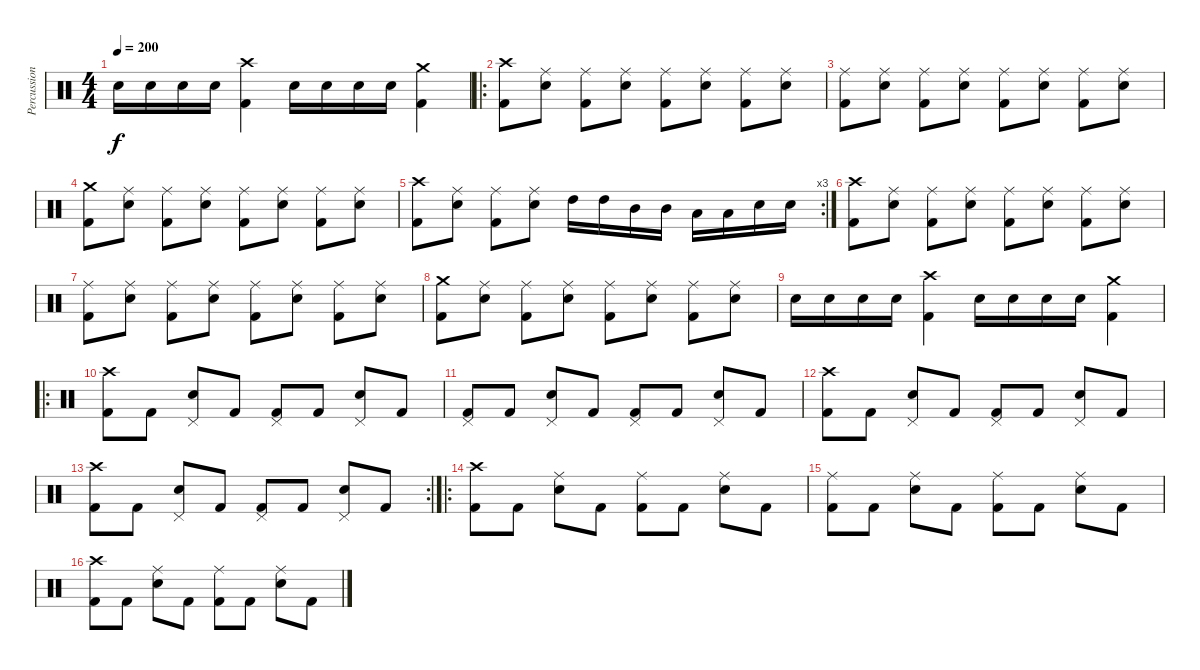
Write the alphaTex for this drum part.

\track ("Percussions" "Percussion") {instrument percussion}
\staff {score}
\articulation defaults
\ts (4 4)
\tempo 200
\clef neutral
\ks c "Snare (hit) 2".16{dy f} "Snare (hit) 2".16 "Snare (hit) 2".16 "Snare (hit) 2".16
("Crash high (hit)" "Kick (hit) 2").4 "Snare (hit) 2".16 "Snare (hit) 2".16 "Snare (hit) 2".16 "Snare (hit) 2".16 ("Crash medium (hit)" "Kick (hit) 2").4 |
\ro
("Crash high (hit)" "Kick (hit) 2").8 ("Ride (middle)" "Snare (hit) 2").8 ("Ride (middle)" "Kick (hit) 2").8 ("Ride (middle)" "Snare (hit) 2").8 ("Ride (middle)" "Kick (hit) 2").8 ("Ride (middle)" "Snare (hit) 2").8 ("Ride (middle)" "Kick (hit) 2").8 ("Ride (middle)" "Snare (hit) 2").8 |
("Ride (middle)" "Kick (hit) 2").8 ("Ride (middle)" "Snare (hit) 2").8 ("Ride (middle)" "Kick (hit) 2").8 ("Ride (middle)" "Snare (hit) 2").8 ("Ride (middle)" "Kick (hit) 2").8 ("Ride (middle)" "Snare (hit) 2").8 ("Ride (middle)" "Kick (hit) 2").8 ("Ride (middle)" "Snare (hit) 2").8 |
("Crash medium (hit)" "Kick (hit) 2").8 ("Ride (middle)" "Snare (hit) 2").8 ("Ride (middle)" "Kick (hit) 2").8 ("Ride (middle)" "Snare (hit) 2").8 ("Ride (middle)" "Kick (hit) 2").8 ("Ride (middle)" "Snare (hit) 2").8 ("Ride (middle)" "Kick (hit) 2").8 ("Ride (middle)" "Snare (hit) 2").8 |
\rc 3
("Crash high (hit)" "Kick (hit) 2").8 ("Ride (middle)" "Snare (hit) 2").8 ("Ride (middle)" "Kick (hit) 2").8 ("Ride (middle)" "Snare (hit) 2").8 "High Tom (hit)".16 "High Tom (hit)".16 "Mid Tom (hit)".16 "Mid Tom (hit)".16 "Low Tom (hit)".16 "Low Tom (hit)".16 "Snare (hit) 2".16 "Snare (hit) 2".16 |
("Crash high (hit)" "Kick (hit) 2").8 ("Ride (middle)" "Snare (hit) 2").8 ("Ride (middle)" "Kick (hit) 2").8 ("Ride (middle)" "Snare (hit) 2").8 ("Ride (middle)" "Kick (hit) 2").8 ("Ride (middle)" "Snare (hit) 2").8 ("Ride (middle)" "Kick (hit) 2").8 ("Ride (middle)" "Snare (hit) 2").8 |
("Ride (middle)" "Kick (hit) 2").8 ("Ride (middle)" "Snare (hit) 2").8 ("Ride (middle)" "Kick (hit) 2").8 ("Ride (middle)" "Snare (hit) 2").8 ("Ride (middle)" "Kick (hit) 2").8 ("Ride (middle)" "Snare (hit) 2").8 ("Ride (middle)" "Kick (hit) 2").8 ("Ride (middle)" "Snare (hit) 2").8 |
("Crash medium (hit)" "Kick (hit) 2").8 ("Ride (middle)" "Snare (hit) 2").8 ("Ride (middle)" "Kick (hit) 2").8 ("Ride (middle)" "Snare (hit) 2").8 ("Ride (middle)" "Kick (hit) 2").8 ("Ride (middle)" "Snare (hit) 2").8 ("Ride (middle)" "Kick (hit) 2").8 ("Ride (middle)" "Snare (hit) 2").8 |
"Snare (hit) 2".16 "Snare (hit) 2".16 "Snare (hit) 2".16 "Snare (hit) 2".16 ("Crash high (hit)" "Kick (hit) 2").4 "Snare (hit) 2".16 "Snare (hit) 2".16 "Snare (hit) 2".16 "Snare (hit) 2".16 ("Crash medium (hit)" "Kick (hit) 2").4 |
\ro
("Crash high (hit)" "Kick (hit) 2").8 "Kick (hit) 2".8 ("Pedal Hi-Hat (hit)" "Snare (hit) 2").8 "Kick (hit) 2".8 ("Pedal Hi-Hat (hit)" "Kick (hit) 2").8 "Kick (hit) 2".8 ("Pedal Hi-Hat (hit)" "Snare (hit) 2").8 "Kick (hit) 2".8 |
("Pedal Hi-Hat (hit)" "Kick (hit) 2").8 "Kick (hit) 2".8 ("Pedal Hi-Hat (hit)" "Snare (hit) 2").8 "Kick (hit) 2".8 ("Pedal Hi-Hat (hit)" "Kick (hit) 2").8 "Kick (hit) 2".8 ("Pedal Hi-Hat (hit)" "Snare (hit) 2").8 "Kick (hit) 2".8 |
("Crash high (hit)" "Kick (hit) 2").8 "Kick (hit) 2".8 ("Pedal Hi-Hat (hit)" "Snare (hit) 2").8 "Kick (hit) 2".8 ("Pedal Hi-Hat (hit)" "Kick (hit) 2").8 "Kick (hit) 2".8 ("Pedal Hi-Hat (hit)" "Snare (hit) 2").8 "Kick (hit) 2".8 |
\rc 2
("Crash high (hit)" "Kick (hit) 2").8 "Kick (hit) 2".8 ("Pedal Hi-Hat (hit)" "Snare (hit) 2").8 "Kick (hit) 2".8 ("Pedal Hi-Hat (hit)" "Kick (hit) 2").8 "Kick (hit) 2".8 ("Pedal Hi-Hat (hit)" "Snare (hit) 2").8 "Kick (hit) 2".8 |
\ro
("Crash high (hit)" "Kick (hit) 2").8 "Kick (hit) 2".8 ("Ride (middle)" "Snare (hit) 2").8 "Kick (hit) 2".8 ("Ride (middle)" "Kick (hit) 2").8 "Kick (hit) 2".8 ("Ride (middle)" "Snare (hit) 2").8 "Kick (hit) 2".8 |
("Ride (middle)" "Kick (hit) 2").8 "Kick (hit) 2".8 ("Ride (middle)" "Snare (hit) 2").8 "Kick (hit) 2".8 ("Ride (middle)" "Kick (hit) 2").8 "Kick (hit) 2".8 ("Ride (middle)" "Snare (hit) 2").8 "Kick (hit) 2".8 |
("Crash high (hit)" "Kick (hit) 2").8 "Kick (hit) 2".8 ("Ride (middle)" "Snare (hit) 2").8 "Kick (hit) 2".8 ("Ride (middle)" "Kick (hit) 2").8 "Kick (hit) 2".8 ("Ride (middle)" "Snare (hit) 2").8 "Kick (hit) 2".8
